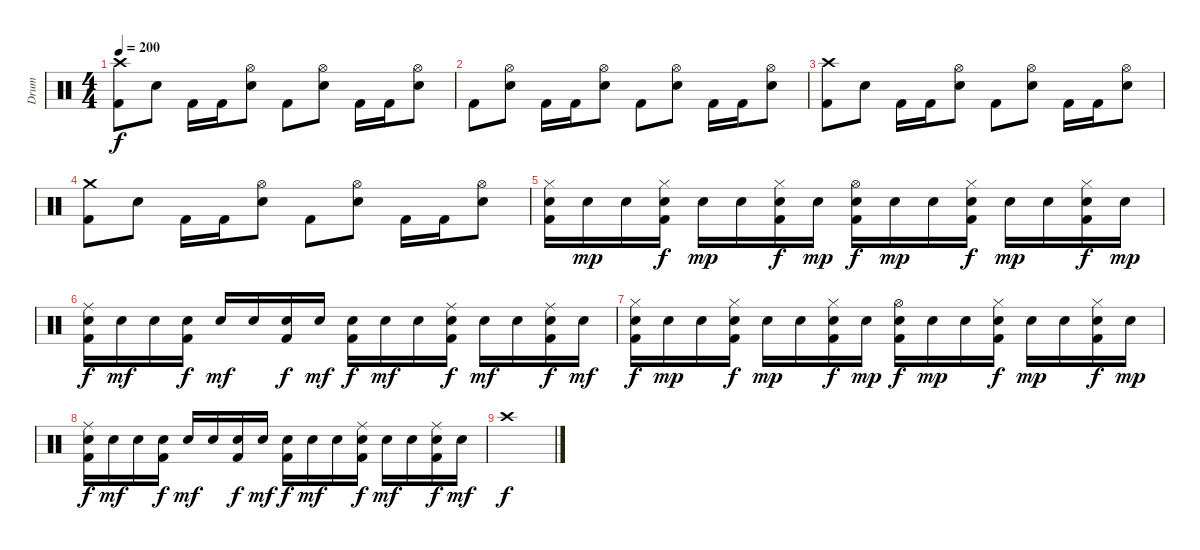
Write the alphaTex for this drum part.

\track ("Drum" "Drum") {instrument percussion}
\staff {score}
\articulation defaults
\ts (4 4)
\tempo 200
\clef neutral
\ks c
("Crash high (hit)" "Kick (hit) 2").8{dy f} "Electric Snare (hit)".8 "Kick (hit) 2".16 "Kick (hit) 2".16 ("Hi-Hat (open)" "Electric Snare (hit)").8 "Kick (hit) 2".8 ("Hi-Hat (open)" "Electric Snare (hit)").8 "Kick (hit) 2".16 "Kick (hit) 2".16 ("Hi-Hat (open)" "Electric Snare (hit)").8 |
"Kick (hit) 2".8 ("Hi-Hat (open)" "Electric Snare (hit)").8 "Kick (hit) 2".16 "Kick (hit) 2".16 ("Hi-Hat (open)" "Electric Snare (hit)").8 "Kick (hit) 2".8 ("Hi-Hat (open)" "Electric Snare (hit)").8 "Kick (hit) 2".16 "Kick (hit) 2".16 ("Hi-Hat (open)" "Electric Snare (hit)").8 |
("Crash high (hit)" "Kick (hit) 2").8 "Electric Snare (hit)".8 "Kick (hit) 2".16 "Kick (hit) 2".16 ("Hi-Hat (open)" "Electric Snare (hit)").8 "Kick (hit) 2".8 ("Hi-Hat (open)" "Electric Snare (hit)").8 "Kick (hit) 2".16 "Kick (hit) 2".16 ("Hi-Hat (open)" "Electric Snare (hit)").8 |
("Crash medium (hit)" "Kick (hit) 2").8 "Electric Snare (hit)".8 "Kick (hit) 2".16 "Kick (hit) 2".16 ("Hi-Hat (open)" "Electric Snare (hit)").8 "Kick (hit) 2".8 ("Hi-Hat (open)" "Electric Snare (hit)").8 "Kick (hit) 2".16 "Kick (hit) 2".16 ("Hi-Hat (open)" "Electric Snare (hit)").8 |
("Hi-Hat (closed)" "Electric Snare (hit)" "Kick (hit) 2").16 "Electric Snare (hit)".16{dy mp} "Electric Snare (hit)".16 ("Hi-Hat (closed)" "Electric Snare (hit)" "Kick (hit) 2").16{dy f} "Electric Snare (hit)".16{dy mp} "Electric Snare (hit)".16 ("Hi-Hat (closed)" "Electric Snare (hit)" "Kick (hit) 2").16{dy f} "Electric Snare (hit)".16{dy mp} ("Hi-Hat (open)" "Electric Snare (hit)" "Kick (hit) 2").16{dy f} "Electric Snare (hit)".16{dy mp} "Electric Snare (hit)".16 ("Hi-Hat (closed)" "Electric Snare (hit)" "Kick (hit) 2").16{dy f} "Electric Snare (hit)".16{dy mp} "Electric Snare (hit)".16 ("Hi-Hat (closed)" "Electric Snare (hit)" "Kick (hit) 2").16{dy f} "Electric Snare (hit)".16{dy mp} |
("Ride (middle)" "Electric Snare (hit)" "Kick (hit) 2").16{dy f} "Electric Snare (hit)".16{dy mf} "Electric Snare (hit)".16 ("Electric Snare (hit)" "Kick (hit) 2").16{dy f} "Electric Snare (hit)".16{dy mf} "Electric Snare (hit)".16 ("Electric Snare (hit)" "Kick (hit) 2").16{dy f} "Electric Snare (hit)".16{dy mf} ("Electric Snare (hit)" "Kick (hit) 2").16{dy f} "Electric Snare (hit)".16{dy mf} "Electric Snare (hit)".16 ("Ride (middle)" "Electric Snare (hit)" "Kick (hit) 2").16{dy f} "Electric Snare (hit)".16{dy mf} "Electric Snare (hit)".16 ("Ride (middle)" "Electric Snare (hit)" "Kick (hit) 2").16{dy f} "Electric Snare (hit)".16{dy mf} |
("Hi-Hat (closed)" "Electric Snare (hit)" "Kick (hit) 2").16{dy f} "Electric Snare (hit)".16{dy mp} "Electric Snare (hit)".16 ("Hi-Hat (closed)" "Electric Snare (hit)" "Kick (hit) 2").16{dy f} "Electric Snare (hit)".16{dy mp} "Electric Snare (hit)".16 ("Hi-Hat (closed)" "Electric Snare (hit)" "Kick (hit) 2").16{dy f} "Electric Snare (hit)".16{dy mp} ("Hi-Hat (open)" "Electric Snare (hit)" "Kick (hit) 2").16{dy f} "Electric Snare (hit)".16{dy mp} "Electric Snare (hit)".16 ("Hi-Hat (closed)" "Electric Snare (hit)" "Kick (hit) 2").16{dy f} "Electric Snare (hit)".16{dy mp} "Electric Snare (hit)".16 ("Hi-Hat (closed)" "Electric Snare (hit)" "Kick (hit) 2").16{dy f} "Electric Snare (hit)".16{dy mp} |
("Ride (middle)" "Electric Snare (hit)" "Kick (hit) 2").16{dy f} "Electric Snare (hit)".16{dy mf} "Electric Snare (hit)".16 ("Electric Snare (hit)" "Kick (hit) 2").16{dy f} "Electric Snare (hit)".16{dy mf} "Electric Snare (hit)".16 ("Electric Snare (hit)" "Kick (hit) 2").16{dy f} "Electric Snare (hit)".16{dy mf} ("Electric Snare (hit)" "Kick (hit) 2").16{dy f} "Electric Snare (hit)".16{dy mf} "Electric Snare (hit)".16 ("Ride (middle)" "Electric Snare (hit)" "Kick (hit) 2").16{dy f} "Electric Snare (hit)".16{dy mf} "Electric Snare (hit)".16 ("Ride (middle)" "Electric Snare (hit)" "Kick (hit) 2").16{dy f} "Electric Snare (hit)".16{dy mf} |
"Crash high (hit)".1{dy f}
